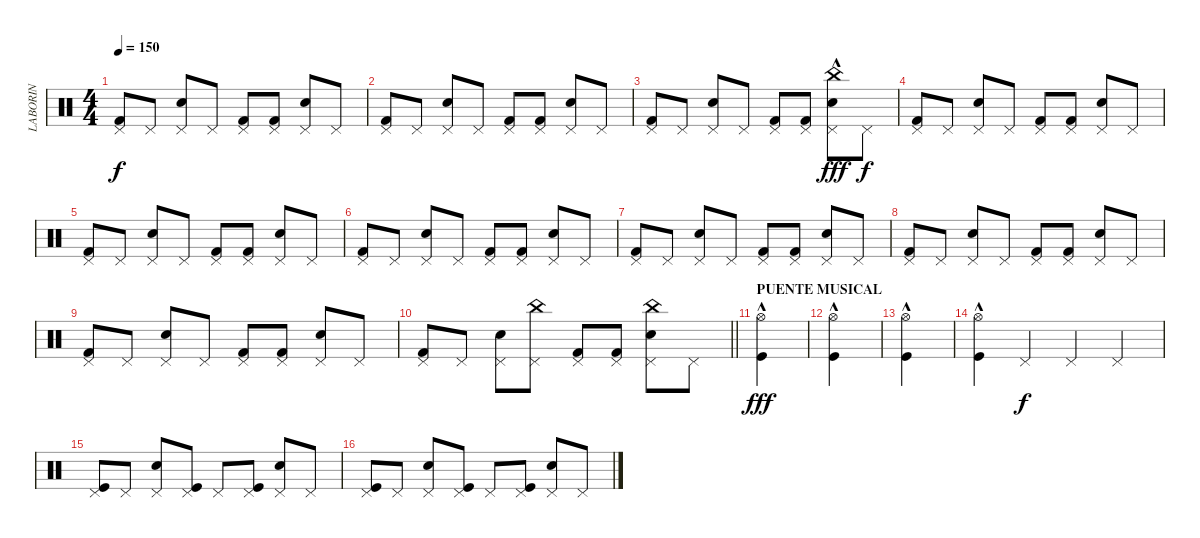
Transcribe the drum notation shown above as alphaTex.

\track ("LABORIN" "LABORIN") {instrument percussion}
\staff {score}
\articulation defaults
\ts (4 4)
\tempo 150
\clef neutral
\ks c
("Kick (hit) 2" "Pedal Hi-Hat (hit)").8{dy f} "Pedal Hi-Hat (hit)".8 ("Snare (hit) 2" "Pedal Hi-Hat (hit)").8 "Pedal Hi-Hat (hit)".8 ("Kick (hit) 2" "Pedal Hi-Hat (hit)").8 ("Kick (hit) 2" "Pedal Hi-Hat (hit)").8 ("Snare (hit) 2" "Pedal Hi-Hat (hit)").8 "Pedal Hi-Hat (hit)".8 |
("Kick (hit) 2" "Pedal Hi-Hat (hit)").8 "Pedal Hi-Hat (hit)".8 ("Snare (hit) 2" "Pedal Hi-Hat (hit)").8 "Pedal Hi-Hat (hit)".8 ("Kick (hit) 2" "Pedal Hi-Hat (hit)").8 ("Kick (hit) 2" "Pedal Hi-Hat (hit)").8 ("Snare (hit) 2" "Pedal Hi-Hat (hit)").8 "Pedal Hi-Hat (hit)".8 |
("Kick (hit) 2" "Pedal Hi-Hat (hit)").8 "Pedal Hi-Hat (hit)".8 ("Snare (hit) 2" "Pedal Hi-Hat (hit)").8 "Pedal Hi-Hat (hit)".8 ("Kick (hit) 2" "Pedal Hi-Hat (hit)").8 ("Kick (hit) 2" "Pedal Hi-Hat (hit)").8 ("China (hit)"{hac} "Snare (hit) 2" "Pedal Hi-Hat (hit)").8{dy fff} "Pedal Hi-Hat (hit)".8{dy f} |
("Kick (hit) 2" "Pedal Hi-Hat (hit)").8 "Pedal Hi-Hat (hit)".8 ("Snare (hit) 2" "Pedal Hi-Hat (hit)").8 "Pedal Hi-Hat (hit)".8 ("Kick (hit) 2" "Pedal Hi-Hat (hit)").8 ("Kick (hit) 2" "Pedal Hi-Hat (hit)").8 ("Snare (hit) 2" "Pedal Hi-Hat (hit)").8 "Pedal Hi-Hat (hit)".8 |
("Kick (hit) 2" "Pedal Hi-Hat (hit)").8 "Pedal Hi-Hat (hit)".8 ("Snare (hit) 2" "Pedal Hi-Hat (hit)").8 "Pedal Hi-Hat (hit)".8 ("Kick (hit) 2" "Pedal Hi-Hat (hit)").8 ("Kick (hit) 2" "Pedal Hi-Hat (hit)").8 ("Snare (hit) 2" "Pedal Hi-Hat (hit)").8 "Pedal Hi-Hat (hit)".8 |
("Kick (hit) 2" "Pedal Hi-Hat (hit)").8 "Pedal Hi-Hat (hit)".8 ("Snare (hit) 2" "Pedal Hi-Hat (hit)").8 "Pedal Hi-Hat (hit)".8 ("Kick (hit) 2" "Pedal Hi-Hat (hit)").8 ("Kick (hit) 2" "Pedal Hi-Hat (hit)").8 ("Snare (hit) 2" "Pedal Hi-Hat (hit)").8 "Pedal Hi-Hat (hit)".8 |
("Kick (hit) 2" "Pedal Hi-Hat (hit)").8 "Pedal Hi-Hat (hit)".8 ("Snare (hit) 2" "Pedal Hi-Hat (hit)").8 "Pedal Hi-Hat (hit)".8 ("Kick (hit) 2" "Pedal Hi-Hat (hit)").8 ("Kick (hit) 2" "Pedal Hi-Hat (hit)").8 ("Snare (hit) 2" "Pedal Hi-Hat (hit)").8 "Pedal Hi-Hat (hit)".8 |
("Kick (hit) 2" "Pedal Hi-Hat (hit)").8 "Pedal Hi-Hat (hit)".8 ("Snare (hit) 2" "Pedal Hi-Hat (hit)").8 "Pedal Hi-Hat (hit)".8 ("Kick (hit) 2" "Pedal Hi-Hat (hit)").8 ("Kick (hit) 2" "Pedal Hi-Hat (hit)").8 ("Snare (hit) 2" "Pedal Hi-Hat (hit)").8 "Pedal Hi-Hat (hit)".8 |
("Kick (hit) 2" "Pedal Hi-Hat (hit)").8 "Pedal Hi-Hat (hit)".8 ("Snare (hit) 2" "Pedal Hi-Hat (hit)").8 "Pedal Hi-Hat (hit)".8 ("Kick (hit) 2" "Pedal Hi-Hat (hit)").8 ("Kick (hit) 2" "Pedal Hi-Hat (hit)").8 ("Snare (hit) 2" "Pedal Hi-Hat (hit)").8 "Pedal Hi-Hat (hit)".8 |
\barLineRight lightlight
("Kick (hit) 2" "Pedal Hi-Hat (hit)").8 "Pedal Hi-Hat (hit)".8 ("Snare (hit) 2" "Pedal Hi-Hat (hit)").8 ("China (hit)" "Pedal Hi-Hat (hit)").8 ("Kick (hit) 2" "Pedal Hi-Hat (hit)").8 ("Kick (hit) 2" "Pedal Hi-Hat (hit)").8 ("China (hit)" "Snare (hit) 2" "Pedal Hi-Hat (hit)").8 "Pedal Hi-Hat (hit)".8 |
\section ("" "PUENTE MUSICAL")
("Hi-Hat (open)"{hac} "Kick (hit)"{hac}).4{dy fff} |
("Hi-Hat (open)"{hac} "Kick (hit)"{hac}).4 |
("Hi-Hat (open)"{hac} "Kick (hit)"{hac}).4 |
("Hi-Hat (open)"{hac} "Kick (hit)"{hac}).4 "Pedal Hi-Hat (hit)".4{dy f} "Pedal Hi-Hat (hit)".4 "Pedal Hi-Hat (hit)".4 |
("Kick (hit)" "Pedal Hi-Hat (hit)").8 "Pedal Hi-Hat (hit)".8 ("Pedal Hi-Hat (hit)" "Snare (hit) 2").8 ("Kick (hit)" "Pedal Hi-Hat (hit)").8 "Pedal Hi-Hat (hit)".8 ("Kick (hit)" "Pedal Hi-Hat (hit)").8 ("Pedal Hi-Hat (hit)" "Snare (hit) 2").8 "Pedal Hi-Hat (hit)".8 |
("Kick (hit)" "Pedal Hi-Hat (hit)").8 "Pedal Hi-Hat (hit)".8 ("Pedal Hi-Hat (hit)" "Snare (hit) 2").8 ("Kick (hit)" "Pedal Hi-Hat (hit)").8 "Pedal Hi-Hat (hit)".8 ("Kick (hit)" "Pedal Hi-Hat (hit)").8 ("Pedal Hi-Hat (hit)" "Snare (hit) 2").8 "Pedal Hi-Hat (hit)".8
